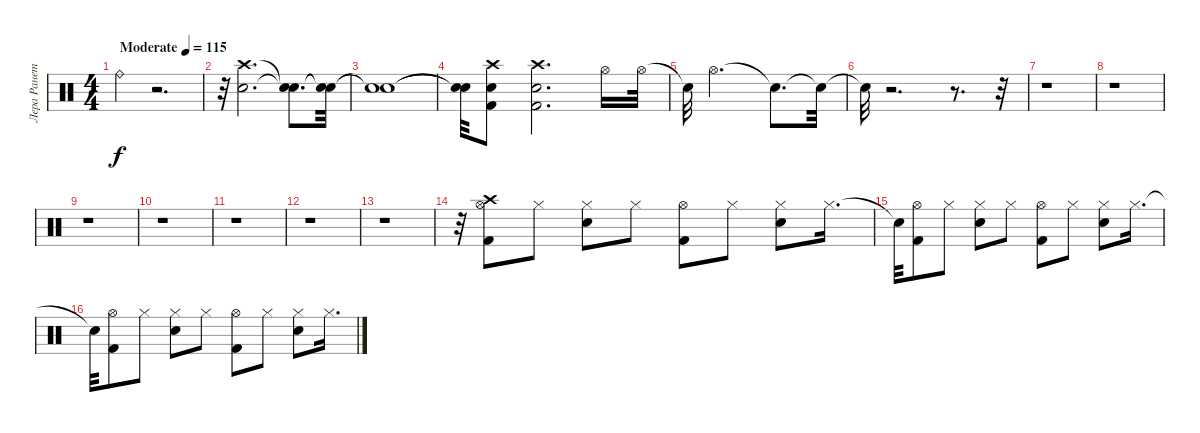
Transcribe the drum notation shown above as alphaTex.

\track ("Лера Ранетка" "Лера Ранет") {instrument percussion}
\staff {score}
\articulation defaults
\ts (4 4)
\tempo (115 "Moderate")
\clef neutral
\ks c "Ride (bell)".4{dy f}
r.2{d} |
r.32 ("Crash high (hit)" "Electric Snare (hit)").2{d} ("Snare (hit)"{t} "Snare (hit)"{t}).8{d} ("Snare (hit)"{t} "Snare (hit)"{t}).32 |
("Snare (hit)"{t} "Snare (hit)"{t}).1 |
("Snare (hit)"{t} "Snare (hit)"{t}).32 ("Electric Snare (hit)" "Kick (hit) 2" "Crash high (hit)").8 ("Electric Snare (hit)" "Kick (hit) 2" "Crash high (hit)").2{d} "Hi-Hat (open)".16 "Hi-Hat (open)".32 |
"Snare (hit)"{t}.32 "Hi-Hat (open)".2{d} "Snare (hit)"{t}.8{d} "Snare (hit)"{t}.32 |
"Snare (hit)"{t}.32 r.2{d} r.8{d} r.32 |
r.1 |
r.1 |
r.1 |
r.1 |
r.1 |
r.1 |
r.1 |
r.32 ("Hi-Hat (open)" "Kick (hit) 2" "Crash high (hit)").8 "Hi-Hat (closed)".8 ("Hi-Hat (closed)" "Electric Snare (hit)").8 "Hi-Hat (closed)".8 ("Hi-Hat (open)" "Kick (hit) 2").8 "Hi-Hat (closed)".8 ("Hi-Hat (closed)" "Electric Snare (hit)").8 "Hi-Hat (closed)".16{d} |
"Snare (hit)"{t}.32 ("Hi-Hat (open)" "Kick (hit) 2").8 "Hi-Hat (closed)".8 ("Hi-Hat (closed)" "Electric Snare (hit)").8 "Hi-Hat (closed)".8 ("Hi-Hat (open)" "Kick (hit) 2").8 "Hi-Hat (closed)".8 ("Hi-Hat (closed)" "Electric Snare (hit)").8 "Hi-Hat (closed)".16{d} |
"Snare (hit)"{t}.32 ("Hi-Hat (open)" "Kick (hit) 2").8 "Hi-Hat (closed)".8 ("Hi-Hat (closed)" "Electric Snare (hit)").8 "Hi-Hat (closed)".8 ("Hi-Hat (open)" "Kick (hit) 2").8 "Hi-Hat (closed)".8 ("Hi-Hat (closed)" "Electric Snare (hit)").8 "Hi-Hat (closed)".16{d}
